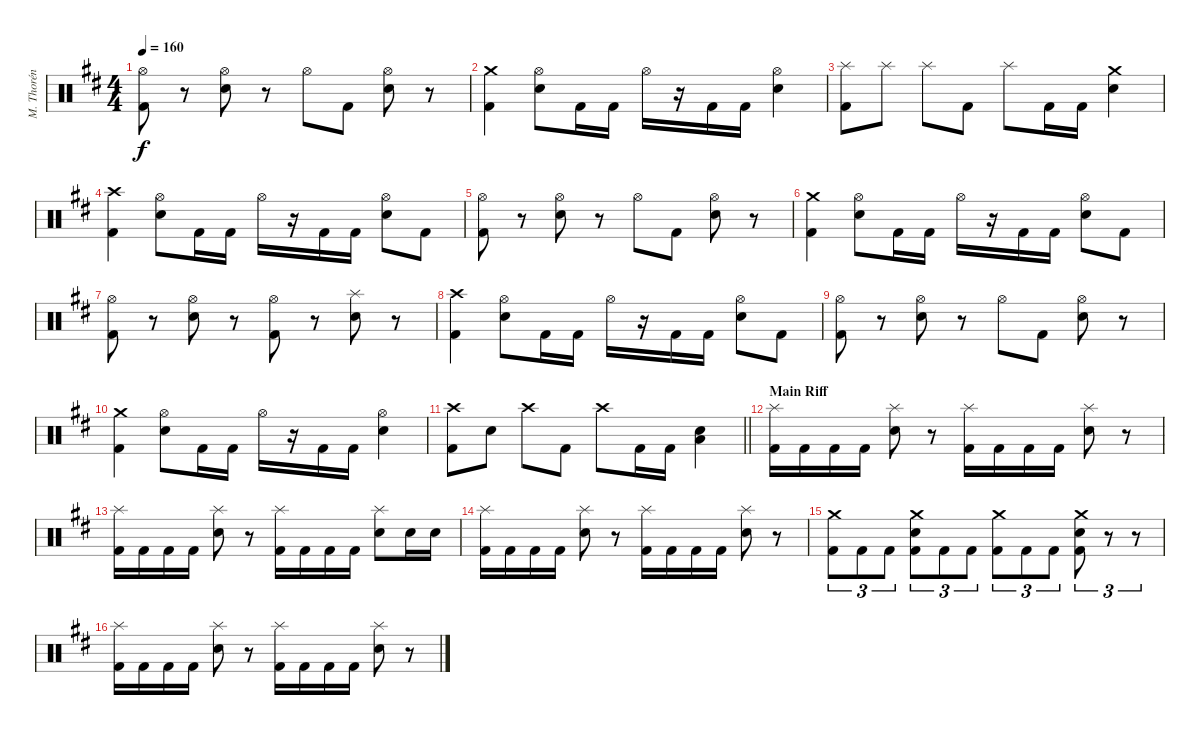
\track ("M. Thorén (Drums)" "M. Thorén ") {instrument percussion}
\staff {score}
\articulation defaults
\ts (4 4)
\tempo 160
\clef neutral
\ks bminor
("Hi-Hat (open)" "Kick (hit) 2").8{dy f} r.8 ("Hi-Hat (open)" "Electric Snare (hit)").8 r.8 "Hi-Hat (open)".8 "Kick (hit) 2".8 ("Hi-Hat (open)" "Electric Snare (hit)").8 r.8 |
("Crash medium (hit)" "Kick (hit) 2").4 ("Hi-Hat (open)" "Electric Snare (hit)").8 "Kick (hit) 2".16 "Kick (hit) 2".16 "Hi-Hat (open)".16 r.16 "Kick (hit) 2".16 "Kick (hit) 2".16 ("Hi-Hat (open)" "Electric Snare (hit)").4 |
("Splash (hit)" "Kick (hit) 2").8 "Splash (hit)".8 "Splash (hit)".8 "Kick (hit) 2".8 "Splash (hit)".8 "Kick (hit) 2".16 "Kick (hit) 2".16 ("Crash medium (hit)" "Electric Snare (hit)").4 |
("Crash high (hit)" "Kick (hit) 2").4 ("Hi-Hat (open)" "Electric Snare (hit)").8 "Kick (hit) 2".16 "Kick (hit) 2".16 "Hi-Hat (open)".16 r.16 "Kick (hit) 2".16 "Kick (hit) 2".16 ("Hi-Hat (open)" "Electric Snare (hit)").8 "Kick (hit) 2".8 |
("Hi-Hat (open)" "Kick (hit) 2").8 r.8 ("Hi-Hat (open)" "Electric Snare (hit)").8 r.8 "Hi-Hat (open)".8 "Kick (hit) 2".8 ("Hi-Hat (open)" "Electric Snare (hit)").8 r.8 |
("Crash medium (hit)" "Kick (hit) 2").4 ("Hi-Hat (open)" "Electric Snare (hit)").8 "Kick (hit) 2".16 "Kick (hit) 2".16 "Hi-Hat (open)".16 r.16 "Kick (hit) 2".16 "Kick (hit) 2".16 ("Hi-Hat (open)" "Electric Snare (hit)").8 "Kick (hit) 2".8 |
("Hi-Hat (open)" "Kick (hit) 2").8 r.8 ("Hi-Hat (open)" "Electric Snare (hit)").8 r.8 ("Hi-Hat (open)" "Kick (hit) 2").8 r.8 ("Splash (hit)" "Electric Snare (hit)").8 r.8 |
("Crash high (hit)" "Kick (hit) 2").4 ("Hi-Hat (open)" "Electric Snare (hit)").8 "Kick (hit) 2".16 "Kick (hit) 2".16 "Hi-Hat (open)".16 r.16 "Kick (hit) 2".16 "Kick (hit) 2".16 ("Hi-Hat (open)" "Electric Snare (hit)").8 "Kick (hit) 2".8 |
("Hi-Hat (open)" "Kick (hit) 2").8 r.8 ("Hi-Hat (open)" "Electric Snare (hit)").8 r.8 "Hi-Hat (open)".8 "Kick (hit) 2".8 ("Hi-Hat (open)" "Electric Snare (hit)").8 r.8 |
("Crash medium (hit)" "Kick (hit) 2").4 ("Hi-Hat (open)" "Electric Snare (hit)").8 "Kick (hit) 2".16 "Kick (hit) 2".16 "Hi-Hat (open)".16 r.16 "Kick (hit) 2".16 "Kick (hit) 2".16 ("Hi-Hat (open)" "Electric Snare (hit)").4 |
\barLineRight lightlight
("Crash high (hit)" "Kick (hit) 2").8 "Electric Snare (hit)".8 "Crash high (hit)".8 "Kick (hit) 2".8 "Crash high (hit)".8 "Kick (hit) 2".16 "Kick (hit) 2".16 ("Electric Snare (hit)" "Low Floor Tom (hit)").4 |
\section ("" "Main Riff")
("Splash (hit)" "Kick (hit) 2").16 "Kick (hit) 2".16 "Kick (hit) 2".16 "Kick (hit) 2".16 ("Splash (hit)" "Electric Snare (hit)").8 r.8 ("Splash (hit)" "Kick (hit) 2").16 "Kick (hit) 2".16 "Kick (hit) 2".16 "Kick (hit) 2".16 ("Splash (hit)" "Electric Snare (hit)").8 r.8 |
("Splash (hit)" "Kick (hit) 2").16 "Kick (hit) 2".16 "Kick (hit) 2".16 "Kick (hit) 2".16 ("Splash (hit)" "Electric Snare (hit)").8 r.8 ("Splash (hit)" "Kick (hit) 2").16 "Kick (hit) 2".16 "Kick (hit) 2".16 "Kick (hit) 2".16 ("Splash (hit)" "Electric Snare (hit)").8 "Electric Snare (hit)".16 "Electric Snare (hit)".16 |
("Splash (hit)" "Kick (hit) 2").16 "Kick (hit) 2".16 "Kick (hit) 2".16 "Kick (hit) 2".16 ("Splash (hit)" "Electric Snare (hit)").8 r.8 ("Splash (hit)" "Kick (hit) 2").16 "Kick (hit) 2".16 "Kick (hit) 2".16 "Kick (hit) 2".16 ("Splash (hit)" "Electric Snare (hit)").8 r.8 |
("Crash medium (hit)" "Kick (hit) 2").8{tu (3 2)} "Kick (hit) 2".8{tu (3 2)} "Kick (hit) 2".8{tu (3 2)} ("Crash medium (hit)" "Electric Snare (hit)" "Kick (hit) 2").8{tu (3 2)} "Kick (hit) 2".8{tu (3 2)} "Kick (hit) 2".8{tu (3 2)} ("Crash medium (hit)" "Kick (hit) 2").8{tu (3 2)} "Kick (hit) 2".8{tu (3 2)} "Kick (hit) 2".8{tu (3 2)} ("Crash medium (hit)" "Electric Snare (hit)" "Kick (hit) 2").8{tu (3 2)} r.8{tu (3 2)} r.8{tu (3 2)} |
("Splash (hit)" "Kick (hit) 2").16 "Kick (hit) 2".16 "Kick (hit) 2".16 "Kick (hit) 2".16 ("Splash (hit)" "Electric Snare (hit)").8 r.8 ("Splash (hit)" "Kick (hit) 2").16 "Kick (hit) 2".16 "Kick (hit) 2".16 "Kick (hit) 2".16 ("Splash (hit)" "Electric Snare (hit)").8 r.8
